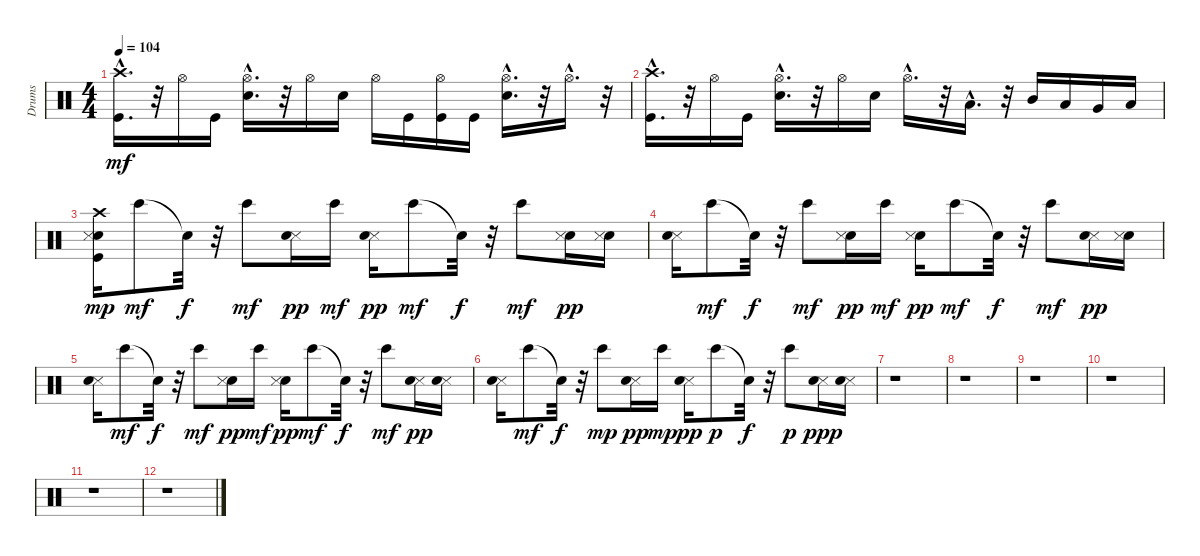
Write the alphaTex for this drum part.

\track ("Drums" "Drums") {instrument percussion}
\staff {score}
\articulation defaults
\ts (4 4)
\tempo 104
\clef neutral
\ks c
("Kick (hit)"{hac} "Crash high (hit)"{hac}).16{d dy mf} r.32 "Hi-Hat (open)".16 "Kick (hit)".16 ("Electric Snare (hit)"{hac} "Hi-Hat (open)"{hac}).16{d} r.32 "Hi-Hat (open)".16 "Electric Snare (hit)".16 "Hi-Hat (open)".16 "Kick (hit)".16 ("Kick (hit)" "Hi-Hat (open)").16 "Kick (hit)".16 ("Hi-Hat (open)"{hac} "Electric Snare (hit)"{hac}).16{d} r.32 "Hi-Hat (open)"{hac}.16{d} r.32 |
("Kick (hit)"{hac} "Crash high (hit)"{hac}).16{d} r.32 "Hi-Hat (open)".16 "Kick (hit)".16 ("Hi-Hat (open)"{hac} "Electric Snare (hit)"{hac}).16{d} r.32 "Hi-Hat (open)".16 "Electric Snare (hit)".16 "Hi-Hat (open)"{hac}.16{d} r.32 "Low Tom (hit)"{hac}.16{d} r.32 "Mid Tom (hit)".16 "Low Tom (hit)".16 "Very Low Tom (hit)".16 "Low Floor Tom (hit)".16 |
("Snare (hit)" "Crash high (hit)" "Metronome (hit)" "Kick (hit)").16{dy mp} "Bongo High (hit)".8{dy mf} "Snare (hit)"{t}.32{dy f} r.32 "Bongo High (hit)".8{dy mf} ("Metronome (hit)" "Snare (hit)").16{dy pp} "Bongo High (hit)".16{dy mf} ("Metronome (hit)" "Snare (hit)").16{dy pp} "Bongo High (hit)".8{dy mf} "Snare (hit)"{t}.32{dy f} r.32 "Bongo High (hit)".8{dy mf} ("Snare (hit)" "Metronome (hit)").16{dy pp} ("Snare (hit)" "Metronome (hit)").16 |
("Metronome (hit)" "Snare (hit)").16 "Bongo High (hit)".8{dy mf} "Snare (hit)"{t}.32{dy f} r.32 "Bongo High (hit)".8{dy mf} ("Snare (hit)" "Metronome (hit)").16{dy pp} "Bongo High (hit)".16{dy mf} ("Snare (hit)" "Metronome (hit)").16{dy pp} "Bongo High (hit)".8{dy mf} "Snare (hit)"{t}.32{dy f} r.32 "Bongo High (hit)".8{dy mf} ("Metronome (hit)" "Snare (hit)").16{dy pp} ("Snare (hit)" "Metronome (hit)").16 |
("Metronome (hit)" "Snare (hit)").16 "Bongo High (hit)".8{dy mf} "Snare (hit)"{t}.32{dy f} r.32 "Bongo High (hit)".8{dy mf} ("Snare (hit)" "Metronome (hit)").16{dy pp} "Bongo High (hit)".16{dy mf} ("Snare (hit)" "Metronome (hit)").16{dy pp} "Bongo High (hit)".8{dy mf} "Snare (hit)"{t}.32{dy f} r.32 "Bongo High (hit)".8{dy mf} ("Metronome (hit)" "Snare (hit)").16{dy pp} ("Metronome (hit)" "Snare (hit)").16 |
("Metronome (hit)" "Snare (hit)").16 "Bongo High (hit)".8{dy mf} "Snare (hit)"{t}.32{dy f} r.32 "Bongo High (hit)".8{dy mp} ("Metronome (hit)" "Snare (hit)").16{dy pp} "Bongo High (hit)".16{dy mp} ("Metronome (hit)" "Snare (hit)").16{dy pp} "Bongo High (hit)".8{dy p} "Snare (hit)"{t}.32{dy f} r.32 "Bongo High (hit)".8{dy p} ("Metronome (hit)" "Snare (hit)").16{dy ppp} ("Metronome (hit)" "Snare (hit)").16 |
r.1 |
r.1 |
r.1 |
r.1 |
r.1 |
r.1
